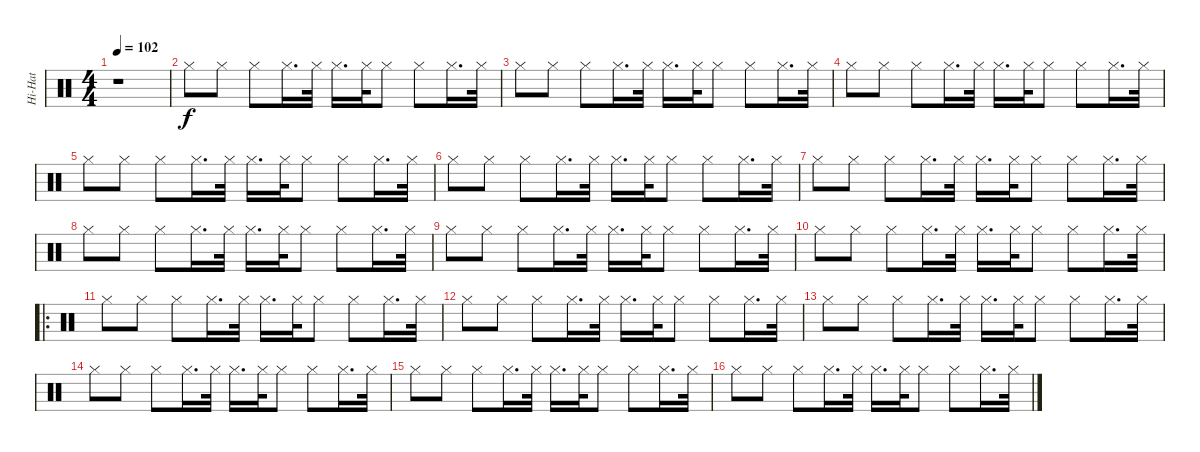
\track ("Hi-Hat" "Hi-Hat") {instrument percussion}
\staff {score}
\articulation defaults
\ts (4 4)
\tempo 102
\clef neutral
\ks c
r.1{dy f} |
"Hi-Hat (closed)".8 "Hi-Hat (closed)".8 "Hi-Hat (closed)".8 "Hi-Hat (closed)".16{d} "Hi-Hat (closed)".32 "Hi-Hat (closed)".16{d} "Hi-Hat (closed)".32 "Hi-Hat (closed)".8 "Hi-Hat (closed)".8 "Hi-Hat (closed)".16{d} "Hi-Hat (closed)".32 |
"Hi-Hat (closed)".8 "Hi-Hat (closed)".8 "Hi-Hat (closed)".8 "Hi-Hat (closed)".16{d} "Hi-Hat (closed)".32 "Hi-Hat (closed)".16{d} "Hi-Hat (closed)".32 "Hi-Hat (closed)".8 "Hi-Hat (closed)".8 "Hi-Hat (closed)".16{d} "Hi-Hat (closed)".32 |
"Hi-Hat (closed)".8 "Hi-Hat (closed)".8 "Hi-Hat (closed)".8 "Hi-Hat (closed)".16{d} "Hi-Hat (closed)".32 "Hi-Hat (closed)".16{d} "Hi-Hat (closed)".32 "Hi-Hat (closed)".8 "Hi-Hat (closed)".8 "Hi-Hat (closed)".16{d} "Hi-Hat (closed)".32 |
"Hi-Hat (closed)".8 "Hi-Hat (closed)".8 "Hi-Hat (closed)".8 "Hi-Hat (closed)".16{d} "Hi-Hat (closed)".32 "Hi-Hat (closed)".16{d} "Hi-Hat (closed)".32 "Hi-Hat (closed)".8 "Hi-Hat (closed)".8 "Hi-Hat (closed)".16{d} "Hi-Hat (closed)".32 |
"Hi-Hat (closed)".8 "Hi-Hat (closed)".8 "Hi-Hat (closed)".8 "Hi-Hat (closed)".16{d} "Hi-Hat (closed)".32 "Hi-Hat (closed)".16{d} "Hi-Hat (closed)".32 "Hi-Hat (closed)".8 "Hi-Hat (closed)".8 "Hi-Hat (closed)".16{d} "Hi-Hat (closed)".32 |
"Hi-Hat (closed)".8 "Hi-Hat (closed)".8 "Hi-Hat (closed)".8 "Hi-Hat (closed)".16{d} "Hi-Hat (closed)".32 "Hi-Hat (closed)".16{d} "Hi-Hat (closed)".32 "Hi-Hat (closed)".8 "Hi-Hat (closed)".8 "Hi-Hat (closed)".16{d} "Hi-Hat (closed)".32 |
"Hi-Hat (closed)".8 "Hi-Hat (closed)".8 "Hi-Hat (closed)".8 "Hi-Hat (closed)".16{d} "Hi-Hat (closed)".32 "Hi-Hat (closed)".16{d} "Hi-Hat (closed)".32 "Hi-Hat (closed)".8 "Hi-Hat (closed)".8 "Hi-Hat (closed)".16{d} "Hi-Hat (closed)".32 |
"Hi-Hat (closed)".8 "Hi-Hat (closed)".8 "Hi-Hat (closed)".8 "Hi-Hat (closed)".16{d} "Hi-Hat (closed)".32 "Hi-Hat (closed)".16{d} "Hi-Hat (closed)".32 "Hi-Hat (closed)".8 "Hi-Hat (closed)".8 "Hi-Hat (closed)".16{d} "Hi-Hat (closed)".32 |
"Hi-Hat (closed)".8 "Hi-Hat (closed)".8 "Hi-Hat (closed)".8 "Hi-Hat (closed)".16{d} "Hi-Hat (closed)".32 "Hi-Hat (closed)".16{d} "Hi-Hat (closed)".32 "Hi-Hat (closed)".8 "Hi-Hat (closed)".8 "Hi-Hat (closed)".16{d} "Hi-Hat (closed)".32 |
\ro "Hi-Hat (closed)".8 "Hi-Hat (closed)".8 "Hi-Hat (closed)".8 "Hi-Hat (closed)".16{d} "Hi-Hat (closed)".32 "Hi-Hat (closed)".16{d} "Hi-Hat (closed)".32 "Hi-Hat (closed)".8 "Hi-Hat (closed)".8 "Hi-Hat (closed)".16{d} "Hi-Hat (closed)".32
|
"Hi-Hat (closed)".8 "Hi-Hat (closed)".8 "Hi-Hat (closed)".8 "Hi-Hat (closed)".16{d} "Hi-Hat (closed)".32 "Hi-Hat (closed)".16{d} "Hi-Hat (closed)".32 "Hi-Hat (closed)".8 "Hi-Hat (closed)".8 "Hi-Hat (closed)".16{d} "Hi-Hat (closed)".32 |
"Hi-Hat (closed)".8 "Hi-Hat (closed)".8 "Hi-Hat (closed)".8 "Hi-Hat (closed)".16{d} "Hi-Hat (closed)".32 "Hi-Hat (closed)".16{d} "Hi-Hat (closed)".32 "Hi-Hat (closed)".8 "Hi-Hat (closed)".8 "Hi-Hat (closed)".16{d} "Hi-Hat (closed)".32 |
"Hi-Hat (closed)".8 "Hi-Hat (closed)".8 "Hi-Hat (closed)".8 "Hi-Hat (closed)".16{d} "Hi-Hat (closed)".32 "Hi-Hat (closed)".16{d} "Hi-Hat (closed)".32 "Hi-Hat (closed)".8 "Hi-Hat (closed)".8 "Hi-Hat (closed)".16{d} "Hi-Hat (closed)".32 |
"Hi-Hat (closed)".8 "Hi-Hat (closed)".8 "Hi-Hat (closed)".8 "Hi-Hat (closed)".16{d} "Hi-Hat (closed)".32 "Hi-Hat (closed)".16{d} "Hi-Hat (closed)".32 "Hi-Hat (closed)".8 "Hi-Hat (closed)".8 "Hi-Hat (closed)".16{d} "Hi-Hat (closed)".32 |
"Hi-Hat (closed)".8 "Hi-Hat (closed)".8 "Hi-Hat (closed)".8 "Hi-Hat (closed)".16{d} "Hi-Hat (closed)".32 "Hi-Hat (closed)".16{d} "Hi-Hat (closed)".32 "Hi-Hat (closed)".8 "Hi-Hat (closed)".8 "Hi-Hat (closed)".16{d} "Hi-Hat (closed)".32
